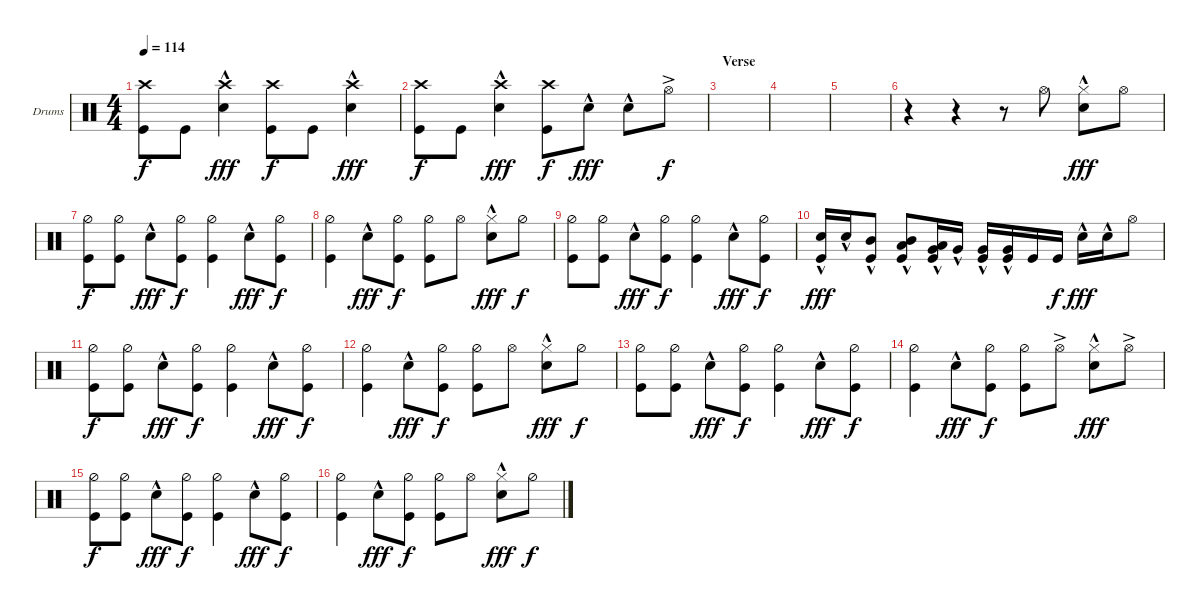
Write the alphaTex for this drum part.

\defaultSystemsLayout 4
\bracketExtendMode groupsimilarinstruments
\firstSystemTrackNameOrientation horizontal
\otherSystemsTrackNameOrientation horizontal
\track ("Drumkit" "Drums") {instrument percussion}
\staff {score}
\articulation defaults
\ts (4 4)
\tempo 114
\clef neutral
\ks c
("Crash high (hit)" "Kick (hit)").8{dy f} "Kick (hit)".8 ("Snare (hit) 2"{hac} "Crash high (hit)").4{dy fff} ("Crash high (hit)" "Kick (hit)").8{dy f} "Kick (hit)".8 ("Snare (hit) 2"{hac} "Crash high (hit)").4{dy fff} |
("Crash high (hit)" "Kick (hit)").8{dy f} "Kick (hit)".8 ("Snare (hit) 2"{hac} "Crash high (hit)").4{dy fff} ("Kick (hit)" "Crash high (hit)").8{dy f} "Snare (hit) 2"{hac}.8{dy fff} "Snare (hit) 2"{hac}.8 "Hi-Hat (open)"{ac}.8{dy f} |
\section ("" "Verse")
|
|
|
r.4 r.4 r.8 "Hi-Hat (open)".8 ("Snare (hit) 2"{hac} "Hi-Hat (closed)").8{dy fff} "Hi-Hat (open)".8 |
("Hi-Hat (half)" "Kick (hit)").8{dy f} ("Hi-Hat (half)" "Kick (hit)").8 "Snare (hit) 2"{hac}.8{dy fff} ("Kick (hit)" "Hi-Hat (half)").8{dy f} ("Kick (hit)" "Hi-Hat (half)").4 "Snare (hit) 2"{hac}.8{dy fff} ("Kick (hit)" "Hi-Hat (half)").8{dy f} |
("Kick (hit)" "Hi-Hat (half)").4 "Snare (hit) 2"{hac}.8{dy fff} ("Kick (hit)" "Hi-Hat (half)").8{dy f} ("Kick (hit)" "Hi-Hat (half)").8 "Hi-Hat (open)".8 ("Hi-Hat (closed)" "Snare (hit) 2"{hac}).8{dy fff} "Hi-Hat (half)".8{dy f} |
("Hi-Hat (half)" "Kick (hit)").8 ("Hi-Hat (half)" "Kick (hit)").8 "Snare (hit) 2"{hac}.8{dy fff} ("Hi-Hat (half)" "Kick (hit)").8{dy f} ("Hi-Hat (half)" "Kick (hit)").4 "Snare (hit) 2"{hac}.8{dy fff} ("Kick (hit)" "Hi-Hat (half)").8{dy f} |
("Kick (hit)" "Snare (hit) 2"{hac}).16{dy fff} "Snare (hit) 2"{hac}.16 ("Kick (hit)" "Mid Tom (hit)"{hac}).8 ("Kick (hit)" "Mid Tom (hit)"{hac} "Low Tom (hit)"{hac}).8 ("Kick (hit)" "Very Low Tom (hit)"{hac} "Low Tom (hit)"{hac}).16 "Very Low Tom (hit)"{hac}.16 ("Very Low Tom (hit)"{hac} "Kick (hit)").16 ("Very Low Tom (hit)"{hac} "Kick (hit)").16 "Kick (hit)".16 "Kick (hit)".16{dy f} "Snare (hit) 2"{hac}.16{dy fff} "Snare (hit) 2"{hac}.16 "Hi-Hat (open)".8 |
("Hi-Hat (half)" "Kick (hit)").8{dy f} ("Hi-Hat (half)" "Kick (hit)").8 "Snare (hit) 2"{hac}.8{dy fff} ("Kick (hit)" "Hi-Hat (half)").8{dy f} ("Kick (hit)" "Hi-Hat (half)").4 "Snare (hit) 2"{hac}.8{dy fff} ("Kick (hit)" "Hi-Hat (half)").8{dy f} |
("Kick (hit)" "Hi-Hat (half)").4 "Snare (hit) 2"{hac}.8{dy fff} ("Kick (hit)" "Hi-Hat (half)").8{dy f} ("Kick (hit)" "Hi-Hat (half)").8 "Hi-Hat (open)".8 ("Hi-Hat (closed)" "Snare (hit) 2"{hac}).8{dy fff} "Hi-Hat (half)".8{dy f} |
("Hi-Hat (half)" "Kick (hit)").8 ("Hi-Hat (half)" "Kick (hit)").8 "Snare (hit) 2"{hac}.8{dy fff} ("Kick (hit)" "Hi-Hat (half)").8{dy f} ("Kick (hit)" "Hi-Hat (half)").4 "Snare (hit) 2"{hac}.8{dy fff} ("Kick (hit)" "Hi-Hat (half)").8{dy f} |
("Kick (hit)" "Hi-Hat (half)").4 "Snare (hit) 2"{hac}.8{dy fff} ("Kick (hit)" "Hi-Hat (half)").8{dy f} ("Kick (hit)" "Hi-Hat (half)").8 "Hi-Hat (open)"{ac}.8 ("Snare (hit) 2"{hac} "Hi-Hat (closed)").8{dy fff} "Hi-Hat (open)"{ac}.8 |
("Hi-Hat (half)" "Kick (hit)").8{dy f} ("Hi-Hat (half)" "Kick (hit)").8 "Snare (hit) 2"{hac}.8{dy fff} ("Kick (hit)" "Hi-Hat (half)").8{dy f} ("Kick (hit)" "Hi-Hat (half)").4 "Snare (hit) 2"{hac}.8{dy fff} ("Kick (hit)" "Hi-Hat (half)").8{dy f} |
("Kick (hit)" "Hi-Hat (half)").4 "Snare (hit) 2"{hac}.8{dy fff} ("Kick (hit)" "Hi-Hat (half)").8{dy f} ("Kick (hit)" "Hi-Hat (half)").8 "Hi-Hat (open)".8 ("Hi-Hat (closed)" "Snare (hit) 2"{hac}).8{dy fff} "Hi-Hat (half)".8{dy f}
